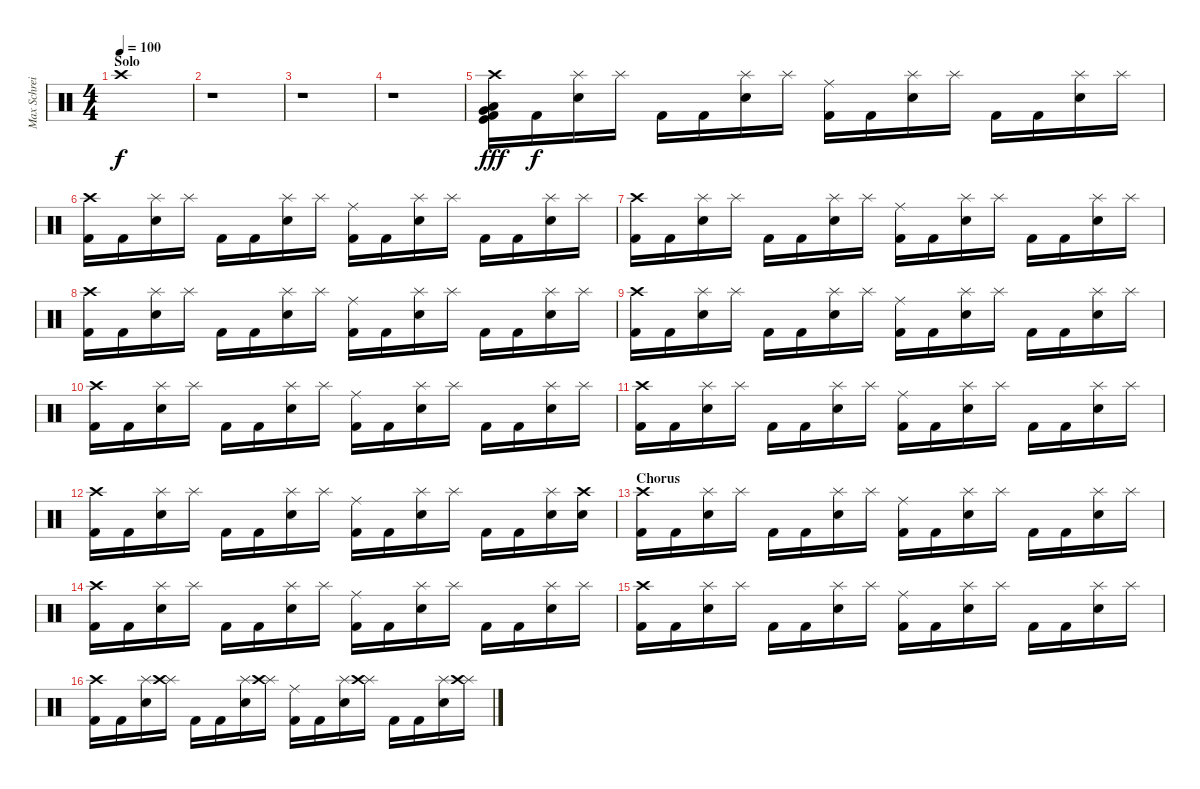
\track ("Max Schreiber " "Max Schrei") {instrument percussion}
\staff {score}
\articulation defaults
\ts (4 4)
\section ("" "Solo")
\tempo 100
\clef neutral
\ks c "Crash high (hit)".1{dy f}
|
r.1 |
r.1 |
r.1 |
("Crash high (hit)" "Low Floor Tom (hit)" "Very Low Tom (hit)" "Kick (hit)" "Kick (hit) 2").16{dy fff} "Kick (hit) 2".16{dy f} ("Splash (hit)" "Electric Snare (hit)").16 "Splash (hit)".16 "Kick (hit) 2".16 "Kick (hit) 2".16 ("Splash (hit)" "Electric Snare (hit)").16 "Splash (hit)".16 ("Ride (middle)" "Kick (hit) 2").16 "Kick (hit) 2".16 ("Splash (hit)" "Electric Snare (hit)").16 "Splash (hit)".16 "Kick (hit) 2".16 "Kick (hit) 2".16 ("Splash (hit)" "Electric Snare (hit)").16 "Splash (hit)".16 |
("Crash high (hit)" "Kick (hit) 2").16 "Kick (hit) 2".16 ("Splash (hit)" "Electric Snare (hit)").16 "Splash (hit)".16 "Kick (hit) 2".16 "Kick (hit) 2".16 ("Splash (hit)" "Electric Snare (hit)").16 "Splash (hit)".16 ("Ride (middle)" "Kick (hit) 2").16 "Kick (hit) 2".16 ("Splash (hit)" "Electric Snare (hit)").16 "Splash (hit)".16 "Kick (hit) 2".16 "Kick (hit) 2".16 ("Splash (hit)" "Electric Snare (hit)").16 "Splash (hit)".16 |
("Crash high (hit)" "Kick (hit) 2").16 "Kick (hit) 2".16 ("Splash (hit)" "Electric Snare (hit)").16 "Splash (hit)".16 "Kick (hit) 2".16 "Kick (hit) 2".16 ("Splash (hit)" "Electric Snare (hit)").16 "Splash (hit)".16 ("Ride (middle)" "Kick (hit) 2").16 "Kick (hit) 2".16 ("Splash (hit)" "Electric Snare (hit)").16 "Splash (hit)".16 "Kick (hit) 2".16 "Kick (hit) 2".16 ("Splash (hit)" "Electric Snare (hit)").16 "Splash (hit)".16 |
("Crash high (hit)" "Kick (hit) 2").16 "Kick (hit) 2".16 ("Splash (hit)" "Electric Snare (hit)").16 "Splash (hit)".16 "Kick (hit) 2".16 "Kick (hit) 2".16 ("Splash (hit)" "Electric Snare (hit)").16 "Splash (hit)".16 ("Ride (middle)" "Kick (hit) 2").16 "Kick (hit) 2".16 ("Splash (hit)" "Electric Snare (hit)").16 "Splash (hit)".16 "Kick (hit) 2".16 "Kick (hit) 2".16 ("Splash (hit)" "Electric Snare (hit)").16 "Splash (hit)".16 |
("Crash high (hit)" "Kick (hit) 2").16 "Kick (hit) 2".16 ("Splash (hit)" "Electric Snare (hit)").16 "Splash (hit)".16 "Kick (hit) 2".16 "Kick (hit) 2".16 ("Splash (hit)" "Electric Snare (hit)").16 "Splash (hit)".16 ("Ride (middle)" "Kick (hit) 2").16 "Kick (hit) 2".16 ("Splash (hit)" "Electric Snare (hit)").16 "Splash (hit)".16 "Kick (hit) 2".16 "Kick (hit) 2".16 ("Splash (hit)" "Electric Snare (hit)").16 "Splash (hit)".16 |
("Crash high (hit)" "Kick (hit) 2").16 "Kick (hit) 2".16 ("Splash (hit)" "Electric Snare (hit)").16 "Splash (hit)".16 "Kick (hit) 2".16 "Kick (hit) 2".16 ("Splash (hit)" "Electric Snare (hit)").16 "Splash (hit)".16 ("Ride (middle)" "Kick (hit) 2").16 "Kick (hit) 2".16 ("Splash (hit)" "Electric Snare (hit)").16 "Splash (hit)".16 "Kick (hit) 2".16 "Kick (hit) 2".16 ("Splash (hit)" "Electric Snare (hit)").16 "Splash (hit)".16 |
("Crash high (hit)" "Kick (hit) 2").16 "Kick (hit) 2".16 ("Splash (hit)" "Electric Snare (hit)").16 "Splash (hit)".16 "Kick (hit) 2".16 "Kick (hit) 2".16 ("Splash (hit)" "Electric Snare (hit)").16 "Splash (hit)".16 ("Ride (middle)" "Kick (hit) 2").16 "Kick (hit) 2".16 ("Splash (hit)" "Electric Snare (hit)").16 "Splash (hit)".16 "Kick (hit) 2".16 "Kick (hit) 2".16 ("Splash (hit)" "Electric Snare (hit)").16 "Splash (hit)".16 |
("Crash high (hit)" "Kick (hit) 2").16 "Kick (hit) 2".16 ("Splash (hit)" "Electric Snare (hit)").16 "Splash (hit)".16 "Kick (hit) 2".16 "Kick (hit) 2".16 ("Splash (hit)" "Electric Snare (hit)").16 "Splash (hit)".16 ("Ride (middle)" "Kick (hit) 2").16 "Kick (hit) 2".16 ("Splash (hit)" "Electric Snare (hit)").16 "Splash (hit)".16 "Kick (hit) 2".16 "Kick (hit) 2".16 ("Splash (hit)" "Electric Snare (hit)").16 ("Crash high (hit)" "Electric Snare (hit)").16 |
\section ("" "Chorus")
("Crash high (hit)" "Kick (hit) 2").16 "Kick (hit) 2".16 ("Splash (hit)" "Electric Snare (hit)").16 "Splash (hit)".16 "Kick (hit) 2".16 "Kick (hit) 2".16 ("Splash (hit)" "Electric Snare (hit)").16 "Splash (hit)".16 ("Ride (middle)" "Kick (hit) 2").16 "Kick (hit) 2".16 ("Splash (hit)" "Electric Snare (hit)").16 "Splash (hit)".16 "Kick (hit) 2".16 "Kick (hit) 2".16 ("Splash (hit)" "Electric Snare (hit)").16 "Splash (hit)".16 |
("Crash high (hit)" "Kick (hit) 2").16 "Kick (hit) 2".16 ("Splash (hit)" "Electric Snare (hit)").16 "Splash (hit)".16 "Kick (hit) 2".16 "Kick (hit) 2".16 ("Splash (hit)" "Electric Snare (hit)").16 "Splash (hit)".16 ("Ride (middle)" "Kick (hit) 2").16 "Kick (hit) 2".16 ("Splash (hit)" "Electric Snare (hit)").16 "Splash (hit)".16 "Kick (hit) 2".16 "Kick (hit) 2".16 ("Splash (hit)" "Electric Snare (hit)").16 "Splash (hit)".16 |
("Crash high (hit)" "Kick (hit) 2").16 "Kick (hit) 2".16 ("Splash (hit)" "Electric Snare (hit)").16 "Splash (hit)".16 "Kick (hit) 2".16 "Kick (hit) 2".16 ("Splash (hit)" "Electric Snare (hit)").16 "Splash (hit)".16 ("Ride (middle)" "Kick (hit) 2").16 "Kick (hit) 2".16 ("Splash (hit)" "Electric Snare (hit)").16 "Splash (hit)".16 "Kick (hit) 2".16 "Kick (hit) 2".16 ("Splash (hit)" "Electric Snare (hit)").16 "Splash (hit)".16 |
("Crash high (hit)" "Kick (hit) 2").16 "Kick (hit) 2".16 ("Splash (hit)" "Electric Snare (hit)").16 ("Splash (hit)" "Crash high (hit)").16 "Kick (hit) 2".16 "Kick (hit) 2".16 ("Splash (hit)" "Electric Snare (hit)").16 ("Splash (hit)" "Crash high (hit)").16 ("Ride (middle)" "Kick (hit) 2").16 "Kick (hit) 2".16 ("Splash (hit)" "Electric Snare (hit)").16 ("Splash (hit)" "Crash high (hit)").16 "Kick (hit) 2".16 "Kick (hit) 2".16 ("Splash (hit)" "Electric Snare (hit)").16 ("Splash (hit)" "Crash high (hit)").16
